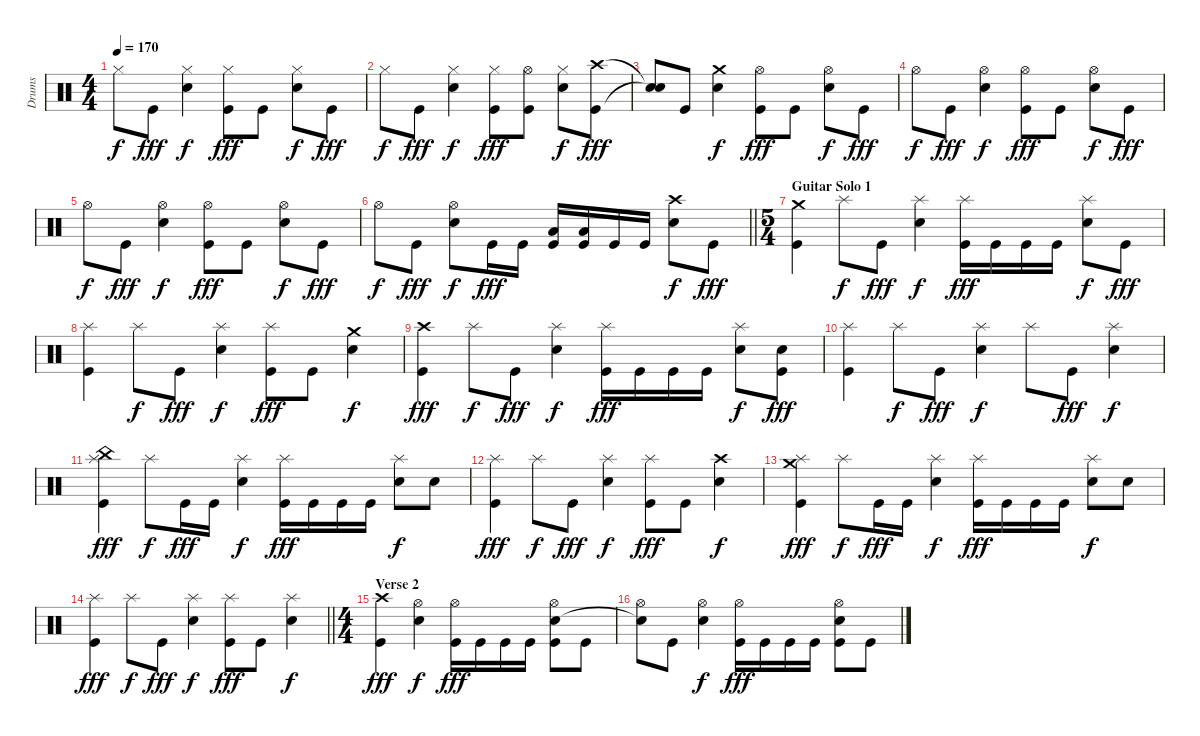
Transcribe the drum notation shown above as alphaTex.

\track ("Drums" "Drums") {instrument percussion}
\staff {score}
\articulation defaults
\ts (4 4)
\tempo 170
\clef neutral
\ks c "Hi-Hat (closed)".8{dy f} "Kick (hit)".8{dy fff}
("Hi-Hat (closed)" "Electric Snare (hit)").4{dy f} ("Hi-Hat (closed)" "Kick (hit)").8{dy fff} "Kick (hit)".8 ("Hi-Hat (closed)" "Electric Snare (hit)").8{dy f} "Kick (hit)".8{dy fff} |
"Hi-Hat (closed)".8{dy f} "Kick (hit)".8{dy fff} ("Hi-Hat (closed)" "Electric Snare (hit)").4{dy f} ("Hi-Hat (closed)" "Kick (hit)").8{dy fff} ("Hi-Hat (open)" "Kick (hit)").8 ("Hi-Hat (closed)" "Electric Snare (hit)").8{dy f} ("Crash high (hit)" "Kick (hit)").8{dy fff} |
("Snare (hit)"{t} "Snare (hit)"{t}).8 "Kick (hit)".8 ("Crash medium (hit)" "Electric Snare (hit)").4{dy f} ("Hi-Hat (open)" "Kick (hit)").8{dy fff} "Kick (hit)".8 ("Hi-Hat (open)" "Electric Snare (hit)").8{dy f} "Kick (hit)".8{dy fff} |
"Hi-Hat (open)".8{dy f} "Kick (hit)".8{dy fff} ("Hi-Hat (open)" "Electric Snare (hit)").4{dy f} ("Hi-Hat (open)" "Kick (hit)").8{dy fff} "Kick (hit)".8 ("Hi-Hat (open)" "Electric Snare (hit)").8{dy f} "Kick (hit)".8{dy fff} |
"Hi-Hat (open)".8{dy f} "Kick (hit)".8{dy fff} ("Hi-Hat (open)" "Electric Snare (hit)").4{dy f} ("Hi-Hat (open)" "Kick (hit)").8{dy fff} "Kick (hit)".8 ("Hi-Hat (open)" "Electric Snare (hit)").8{dy f} "Kick (hit)".8{dy fff} |
\barLineRight lightlight "Hi-Hat (open)".8{dy f} "Kick (hit)".8{dy fff}
("Hi-Hat (open)" "Electric Snare (hit)").8{dy f} "Kick (hit)".16{dy fff} "Kick (hit)".16 ("Low Tom (hit)" "Kick (hit)").16 ("Low Tom (hit)" "Kick (hit)").16 "Kick (hit)".16 "Kick (hit)".16 ("Crash high (hit)" "Electric Snare (hit)").8{dy f} "Kick (hit)".8{dy fff} |
\ts (5 4)
\section ("" "Guitar Solo 1")
("Crash medium (hit)" "Kick (hit)").4 "Splash (hit)".8{dy f} "Kick (hit)".8{dy fff} ("Splash (hit)" "Electric Snare (hit)").4{dy f} ("Splash (hit)" "Kick (hit)").16{dy fff} "Kick (hit)".16 "Kick (hit)".16 "Kick (hit)".16 ("Splash (hit)" "Electric Snare (hit)").8{dy f} "Kick (hit)".8{dy fff} |
("Splash (hit)" "Kick (hit)").4 "Splash (hit)".8{dy f} "Kick (hit)".8{dy fff} ("Splash (hit)" "Electric Snare (hit)").4{dy f} ("Splash (hit)" "Kick (hit)").8{dy fff} "Kick (hit)".8 ("Crash medium (hit)" "Electric Snare (hit)").4{dy f} |
("Crash high (hit)" "Kick (hit)").4{dy fff} "Splash (hit)".8{dy f} "Kick (hit)".8{dy fff} ("Splash (hit)" "Electric Snare (hit)").4{dy f} ("Splash (hit)" "Kick (hit)").16{dy fff} "Kick (hit)".16 "Kick (hit)".16 "Kick (hit)".16 ("Splash (hit)" "Electric Snare (hit)").8{dy f} ("Electric Snare (hit)" "Kick (hit)").8{dy fff} |
("Splash (hit)" "Kick (hit)").4 "Splash (hit)".8{dy f} "Kick (hit)".8{dy fff} ("Splash (hit)" "Electric Snare (hit)").4{dy f} "Splash (hit)".8 "Kick (hit)".8{dy fff} ("Splash (hit)" "Electric Snare (hit)").4{dy f} |
("China (hit)" "Splash (hit)" "Kick (hit)").4{dy fff} "Splash (hit)".8{dy f} "Kick (hit)".16{dy fff} "Kick (hit)".16 ("Splash (hit)" "Electric Snare (hit)").4{dy f} ("Splash (hit)" "Kick (hit)").16{dy fff} "Kick (hit)".16 "Kick (hit)".16 "Kick (hit)".16 ("Splash (hit)" "Electric Snare (hit)").8{dy f} "Electric Snare (hit)".8 |
("Splash (hit)" "Kick (hit)").4{dy fff} "Splash (hit)".8{dy f} "Kick (hit)".8{dy fff} ("Splash (hit)" "Electric Snare (hit)").4{dy f} ("Splash (hit)" "Kick (hit)").8{dy fff} "Kick (hit)".8 ("Crash high (hit)" "Electric Snare (hit)").4{dy f} |
("Crash medium (hit)" "Splash (hit)" "Kick (hit)").4{dy fff} "Splash (hit)".8{dy f} "Kick (hit)".16{dy fff} "Kick (hit)".16 ("Splash (hit)" "Electric Snare (hit)").4{dy f} ("Splash (hit)" "Kick (hit)").16{dy fff} "Kick (hit)".16 "Kick (hit)".16 "Kick (hit)".16 ("Splash (hit)" "Electric Snare (hit)").8{dy f} "Electric Snare (hit)".8 |
\barLineRight lightlight
("Splash (hit)" "Kick (hit)").4{dy fff} "Splash (hit)".8{dy f} "Kick (hit)".8{dy fff} ("Splash (hit)" "Electric Snare (hit)").4{dy f} ("Splash (hit)" "Kick (hit)").8{dy fff} "Kick (hit)".8 ("Splash (hit)" "Electric Snare (hit)").4{dy f} |
\ts (4 4)
\section ("" "Verse 2")
("Crash high (hit)" "Kick (hit)").4{dy fff} ("Hi-Hat (open)" "Electric Snare (hit)").4{dy f} ("Hi-Hat (open)" "Kick (hit)").16{dy fff} "Kick (hit)".16 "Kick (hit)".16 "Kick (hit)".16 ("Hi-Hat (open)" "Electric Snare (hit)" "Kick (hit)").8 "Kick (hit)".8 |
("Hi-Hat (open)" "Snare (hit)"{t}).8 "Kick (hit)".8 ("Hi-Hat (open)" "Electric Snare (hit)").4{dy f} ("Hi-Hat (open)" "Kick (hit)").16{dy fff} "Kick (hit)".16 "Kick (hit)".16 "Kick (hit)".16 ("Hi-Hat (open)" "Electric Snare (hit)" "Kick (hit)").8 "Kick (hit)".8
